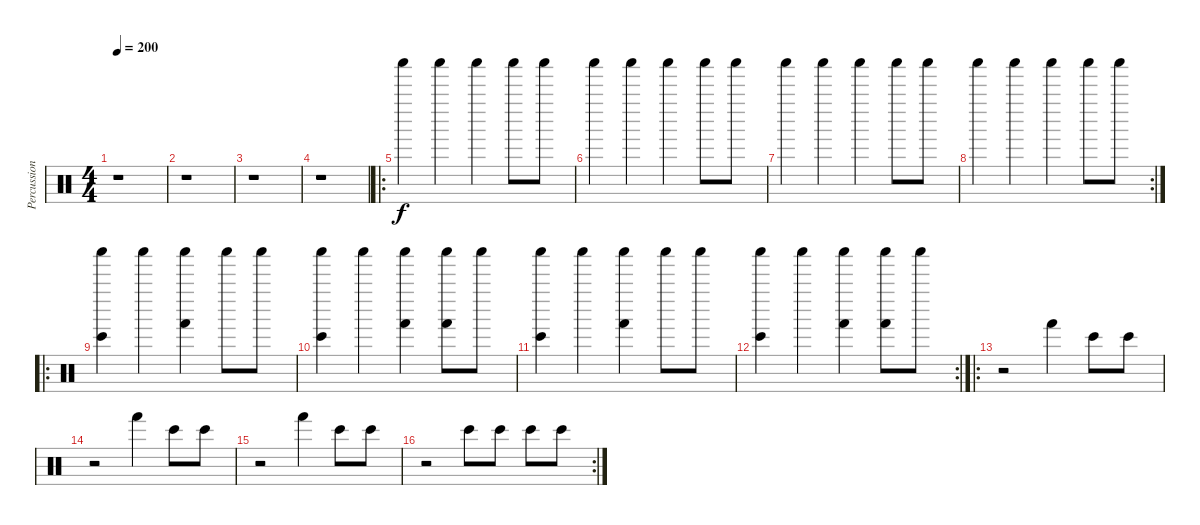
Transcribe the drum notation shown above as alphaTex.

\track ("Percussions" "Percussion") {instrument percussion}
\staff {score}
\articulation defaults
\ts (4 4)
\tempo 200
\clef neutral
\ks c
r.1{dy f} |
r.1 |
r.1 |
r.1 |
\ro "Shaker (hit)".4 "Shaker (hit)".4 "Shaker (hit)".4 "Shaker (hit)".8 "Shaker (hit)".8
|
"Shaker (hit)".4 "Shaker (hit)".4 "Shaker (hit)".4 "Shaker (hit)".8 "Shaker (hit)".8 |
"Shaker (hit)".4 "Shaker (hit)".4 "Shaker (hit)".4 "Shaker (hit)".8 "Shaker (hit)".8 |
\rc 2 "Shaker (hit)".4 "Shaker (hit)".4 "Shaker (hit)".4 "Shaker (hit)".8 "Shaker (hit)".8
|
\ro
("Shaker (hit)" "Bongo High (hit)").4 "Shaker (hit)".4 ("Shaker (hit)" "Hand (hit)").4 "Shaker (hit)".8 "Shaker (hit)".8 |
("Shaker (hit)" "Bongo High (hit)").4 "Shaker (hit)".4 ("Shaker (hit)" "Hand (hit)").4 ("Shaker (hit)" "Hand (hit)").8 "Shaker (hit)".8 |
("Shaker (hit)" "Bongo High (hit)").4 "Shaker (hit)".4 ("Shaker (hit)" "Hand (hit)").4 "Shaker (hit)".8 "Shaker (hit)".8 |
\rc 2
("Shaker (hit)" "Bongo High (hit)").4 "Shaker (hit)".4 ("Shaker (hit)" "Hand (hit)").4 ("Shaker (hit)" "Hand (hit)").8 "Shaker (hit)".8 |
\ro
r.2 "Hand (hit)".4 "Bongo High (hit)".8 "Bongo High (hit)".8 |
r.2 "Hand (hit)".4 "Bongo High (hit)".8 "Bongo High (hit)".8 |
r.2 "Hand (hit)".4 "Bongo High (hit)".8 "Bongo High (hit)".8 |
\rc 2
r.2 "Bongo High (hit)".8 "Bongo High (hit)".8 "Bongo High (hit)".8 "Bongo High (hit)".8
